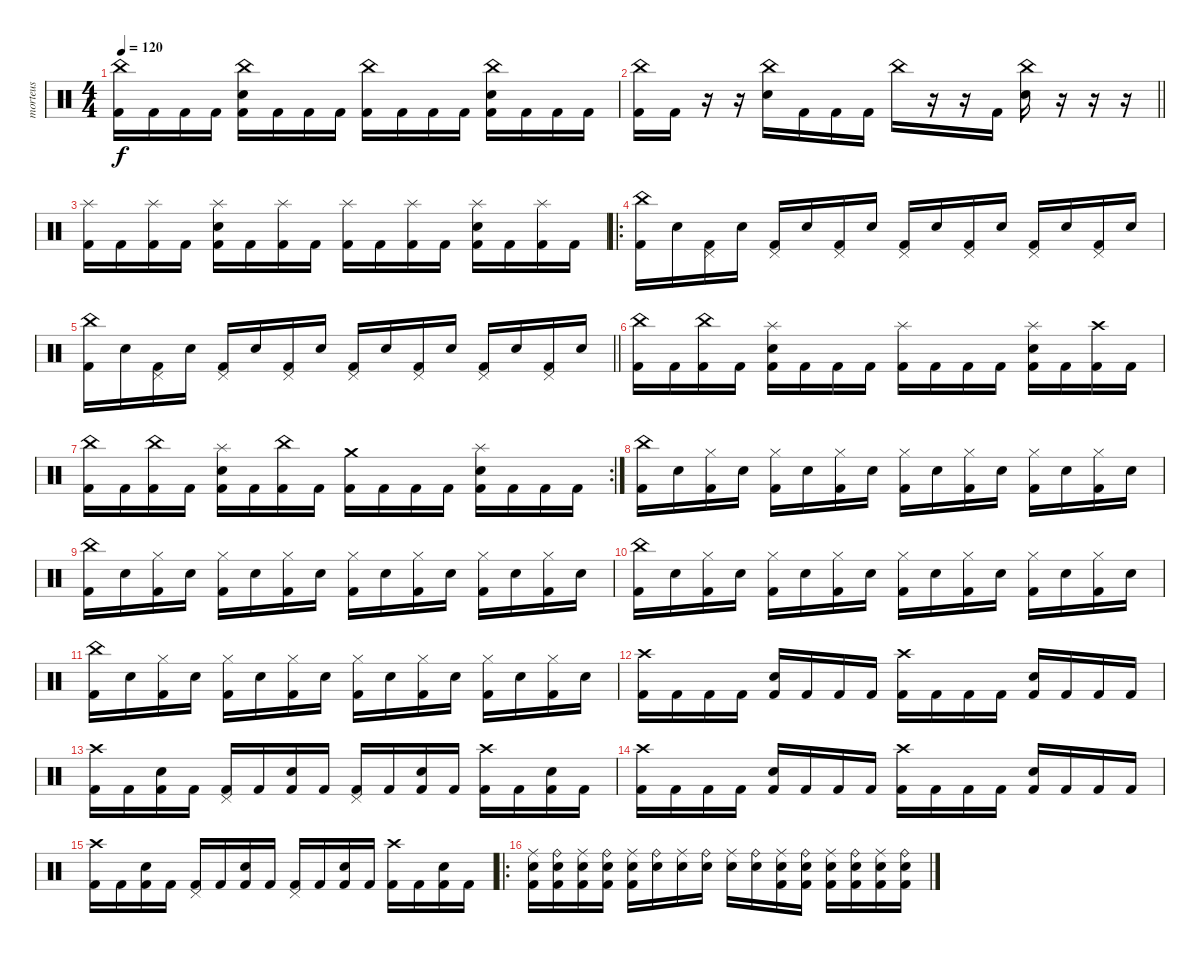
\track ("morteus" "morteus") {instrument percussion}
\staff {score}
\articulation defaults
\ts (4 4)
\tempo 120
\clef neutral
\ks c
("China (hit)" "Kick (hit) 2").16{dy f} "Kick (hit) 2".16 "Kick (hit) 2".16 "Kick (hit) 2".16 ("China (hit)" "Electric Snare (hit)" "Kick (hit) 2").16 "Kick (hit) 2".16 "Kick (hit) 2".16 "Kick (hit) 2".16 ("China (hit)" "Kick (hit) 2").16 "Kick (hit) 2".16 "Kick (hit) 2".16 "Kick (hit) 2".16 ("China (hit)" "Electric Snare (hit)" "Kick (hit) 2").16 "Kick (hit) 2".16 "Kick (hit) 2".16 "Kick (hit) 2".16 |
\barLineRight lightlight
("China (hit)" "Kick (hit) 2").16 "Kick (hit) 2".16 r.16 r.16 ("China (hit)" "Electric Snare (hit)").16 "Kick (hit) 2".16 "Kick (hit) 2".16 "Kick (hit) 2".16 "China (hit)".16 r.16 r.16 "Kick (hit) 2".16 ("China (hit)" "Electric Snare (hit)").16 r.16 r.16 r.16 |
("Splash (hit)" "Kick (hit) 2").16 "Kick (hit) 2".16 ("Splash (hit)" "Kick (hit) 2").16 "Kick (hit) 2".16 ("Splash (hit)" "Electric Snare (hit)" "Kick (hit) 2").16 "Kick (hit) 2".16 ("Splash (hit)" "Kick (hit) 2").16 "Kick (hit) 2".16 ("Splash (hit)" "Kick (hit) 2").16 "Kick (hit) 2".16 ("Splash (hit)" "Kick (hit) 2").16 "Kick (hit) 2".16 ("Splash (hit)" "Electric Snare (hit)" "Kick (hit) 2").16 "Kick (hit) 2".16 ("Splash (hit)" "Kick (hit) 2").16 "Kick (hit) 2".16 |
\ro
("China (hit)" "Kick (hit) 2").16 "Electric Snare (hit)".16 ("Pedal Hi-Hat (hit)" "Kick (hit) 2").16 "Electric Snare (hit)".16 ("Pedal Hi-Hat (hit)" "Kick (hit) 2").16 "Electric Snare (hit)".16 ("Pedal Hi-Hat (hit)" "Kick (hit) 2").16 "Electric Snare (hit)".16 ("Pedal Hi-Hat (hit)" "Kick (hit) 2").16 "Electric Snare (hit)".16 ("Pedal Hi-Hat (hit)" "Kick (hit) 2").16 "Electric Snare (hit)".16 ("Pedal Hi-Hat (hit)" "Kick (hit) 2").16 "Electric Snare (hit)".16 ("Pedal Hi-Hat (hit)" "Kick (hit) 2").16 "Electric Snare (hit)".16 |
\barLineRight lightlight
("China (hit)" "Kick (hit) 2").16 "Electric Snare (hit)".16 ("Pedal Hi-Hat (hit)" "Kick (hit) 2").16 "Electric Snare (hit)".16 ("Pedal Hi-Hat (hit)" "Kick (hit) 2").16 "Electric Snare (hit)".16 ("Pedal Hi-Hat (hit)" "Kick (hit) 2").16 "Electric Snare (hit)".16 ("Pedal Hi-Hat (hit)" "Kick (hit) 2").16 "Electric Snare (hit)".16 ("Pedal Hi-Hat (hit)" "Kick (hit) 2").16 "Electric Snare (hit)".16 ("Pedal Hi-Hat (hit)" "Kick (hit) 2").16 "Electric Snare (hit)".16 ("Pedal Hi-Hat (hit)" "Kick (hit) 2").16 "Electric Snare (hit)".16 |
("China (hit)" "Kick (hit) 2").16 "Kick (hit) 2".16 ("China (hit)" "Kick (hit) 2").16 "Kick (hit) 2".16 ("Splash (hit)" "Electric Snare (hit)" "Kick (hit) 2").16 "Kick (hit) 2".16 "Kick (hit) 2".16 "Kick (hit) 2".16 ("Splash (hit)" "Kick (hit) 2").16 "Kick (hit) 2".16 "Kick (hit) 2".16 "Kick (hit) 2".16 ("Splash (hit)" "Electric Snare (hit)" "Kick (hit) 2").16 "Kick (hit) 2".16 ("Crash high (hit)" "Kick (hit) 2").16 "Kick (hit) 2".16 |
\rc 2
("China (hit)" "Kick (hit) 2").16 "Kick (hit) 2".16 ("China (hit)" "Kick (hit) 2").16 "Kick (hit) 2".16 ("Splash (hit)" "Electric Snare (hit)" "Kick (hit) 2").16 "Kick (hit) 2".16 ("China (hit)" "Kick (hit) 2").16 "Kick (hit) 2".16 ("Crash medium (hit)" "Kick (hit) 2").16 "Kick (hit) 2".16 "Kick (hit) 2".16 "Kick (hit) 2".16 ("Splash (hit)" "Electric Snare (hit)" "Kick (hit) 2").16 "Kick (hit) 2".16 "Kick (hit) 2".16 "Kick (hit) 2".16 |
("China (hit)" "Kick (hit) 2").16 "Electric Snare (hit)".16 ("Hi-Hat (closed)" "Kick (hit) 2").16 "Electric Snare (hit)".16 ("Hi-Hat (closed)" "Kick (hit) 2").16 "Electric Snare (hit)".16 ("Hi-Hat (closed)" "Kick (hit) 2").16 "Electric Snare (hit)".16 ("Hi-Hat (closed)" "Kick (hit) 2").16 "Electric Snare (hit)".16 ("Hi-Hat (closed)" "Kick (hit) 2").16 "Electric Snare (hit)".16 ("Hi-Hat (closed)" "Kick (hit) 2").16 "Electric Snare (hit)".16 ("Hi-Hat (closed)" "Kick (hit) 2").16 "Electric Snare (hit)".16 |
("China (hit)" "Kick (hit) 2").16 "Electric Snare (hit)".16 ("Hi-Hat (closed)" "Kick (hit) 2").16 "Electric Snare (hit)".16 ("Hi-Hat (closed)" "Kick (hit) 2").16 "Electric Snare (hit)".16 ("Hi-Hat (closed)" "Kick (hit) 2").16 "Electric Snare (hit)".16 ("Hi-Hat (closed)" "Kick (hit) 2").16 "Electric Snare (hit)".16 ("Hi-Hat (closed)" "Kick (hit) 2").16 "Electric Snare (hit)".16 ("Hi-Hat (closed)" "Kick (hit) 2").16 "Electric Snare (hit)".16 ("Hi-Hat (closed)" "Kick (hit) 2").16 "Electric Snare (hit)".16 |
("China (hit)" "Kick (hit) 2").16 "Electric Snare (hit)".16 ("Hi-Hat (closed)" "Kick (hit) 2").16 "Electric Snare (hit)".16 ("Hi-Hat (closed)" "Kick (hit) 2").16 "Electric Snare (hit)".16 ("Hi-Hat (closed)" "Kick (hit) 2").16 "Electric Snare (hit)".16 ("Hi-Hat (closed)" "Kick (hit) 2").16 "Electric Snare (hit)".16 ("Hi-Hat (closed)" "Kick (hit) 2").16 "Electric Snare (hit)".16 ("Hi-Hat (closed)" "Kick (hit) 2").16 "Electric Snare (hit)".16 ("Hi-Hat (closed)" "Kick (hit) 2").16 "Electric Snare (hit)".16 |
("China (hit)" "Kick (hit) 2").16 "Electric Snare (hit)".16 ("Hi-Hat (closed)" "Kick (hit) 2").16 "Electric Snare (hit)".16 ("Hi-Hat (closed)" "Kick (hit) 2").16 "Electric Snare (hit)".16 ("Hi-Hat (closed)" "Kick (hit) 2").16 "Electric Snare (hit)".16 ("Hi-Hat (closed)" "Kick (hit) 2").16 "Electric Snare (hit)".16 ("Hi-Hat (closed)" "Kick (hit) 2").16 "Electric Snare (hit)".16 ("Hi-Hat (closed)" "Kick (hit) 2").16 "Electric Snare (hit)".16 ("Hi-Hat (closed)" "Kick (hit) 2").16 "Electric Snare (hit)".16 |
("Crash high (hit)" "Kick (hit) 2").16 "Kick (hit) 2".16 "Kick (hit) 2".16 "Kick (hit) 2".16 ("Electric Snare (hit)" "Kick (hit) 2").16 "Kick (hit) 2".16 "Kick (hit) 2".16 "Kick (hit) 2".16 ("Crash high (hit)" "Kick (hit) 2").16 "Kick (hit) 2".16 "Kick (hit) 2".16 "Kick (hit) 2".16 ("Electric Snare (hit)" "Kick (hit) 2").16 "Kick (hit) 2".16 "Kick (hit) 2".16 "Kick (hit) 2".16 |
("Crash high (hit)" "Kick (hit) 2").16 "Kick (hit) 2".16 ("Electric Snare (hit)" "Kick (hit) 2").16 "Kick (hit) 2".16 ("Pedal Hi-Hat (hit)" "Kick (hit) 2").16 "Kick (hit) 2".16 ("Electric Snare (hit)" "Kick (hit) 2").16 "Kick (hit) 2".16 ("Pedal Hi-Hat (hit)" "Kick (hit) 2").16 "Kick (hit) 2".16 ("Electric Snare (hit)" "Kick (hit) 2").16 "Kick (hit) 2".16 ("Crash high (hit)" "Kick (hit) 2").16 "Kick (hit) 2".16 ("Electric Snare (hit)" "Kick (hit) 2").16 "Kick (hit) 2".16 |
("Crash high (hit)" "Kick (hit) 2").16 "Kick (hit) 2".16 "Kick (hit) 2".16 "Kick (hit) 2".16 ("Electric Snare (hit)" "Kick (hit) 2").16 "Kick (hit) 2".16 "Kick (hit) 2".16 "Kick (hit) 2".16 ("Crash high (hit)" "Kick (hit) 2").16 "Kick (hit) 2".16 "Kick (hit) 2".16 "Kick (hit) 2".16 ("Electric Snare (hit)" "Kick (hit) 2").16 "Kick (hit) 2".16 "Kick (hit) 2".16 "Kick (hit) 2".16 |
("Crash high (hit)" "Kick (hit) 2").16 "Kick (hit) 2".16 ("Electric Snare (hit)" "Kick (hit) 2").16 "Kick (hit) 2".16 ("Pedal Hi-Hat (hit)" "Kick (hit) 2").16 "Kick (hit) 2".16 ("Electric Snare (hit)" "Kick (hit) 2").16 "Kick (hit) 2".16 ("Pedal Hi-Hat (hit)" "Kick (hit) 2").16 "Kick (hit) 2".16 ("Electric Snare (hit)" "Kick (hit) 2").16 "Kick (hit) 2".16 ("Crash high (hit)" "Kick (hit) 2").16 "Kick (hit) 2".16 ("Electric Snare (hit)" "Kick (hit) 2").16 "Kick (hit) 2".16 |
\ro
("Electric Snare (hit)" "Ride (middle)" "Kick (hit) 2").16 ("Electric Snare (hit)" "Ride (bell)" "Kick (hit) 2").16 ("Electric Snare (hit)" "Ride (middle)" "Kick (hit) 2").16 ("Electric Snare (hit)" "Ride (bell)" "Kick (hit) 2").16 ("Electric Snare (hit)" "Ride (middle)" "Kick (hit) 2").16 ("Electric Snare (hit)" "Ride (bell)").16 ("Electric Snare (hit)" "Ride (middle)").16 ("Electric Snare (hit)" "Ride (bell)").16 ("Electric Snare (hit)" "Ride (middle)").16 ("Electric Snare (hit)" "Ride (bell)").16 ("Electric Snare (hit)" "Ride (middle)" "Kick (hit) 2").16 ("Electric Snare (hit)" "Ride (bell)" "Kick (hit) 2").16 ("Electric Snare (hit)" "Ride (middle)" "Kick (hit) 2").16 ("Electric Snare (hit)" "Ride (bell)" "Kick (hit) 2").16 ("Electric Snare (hit)" "Ride (middle)" "Kick (hit) 2").16 ("Electric Snare (hit)" "Ride (bell)" "Kick (hit) 2").16
